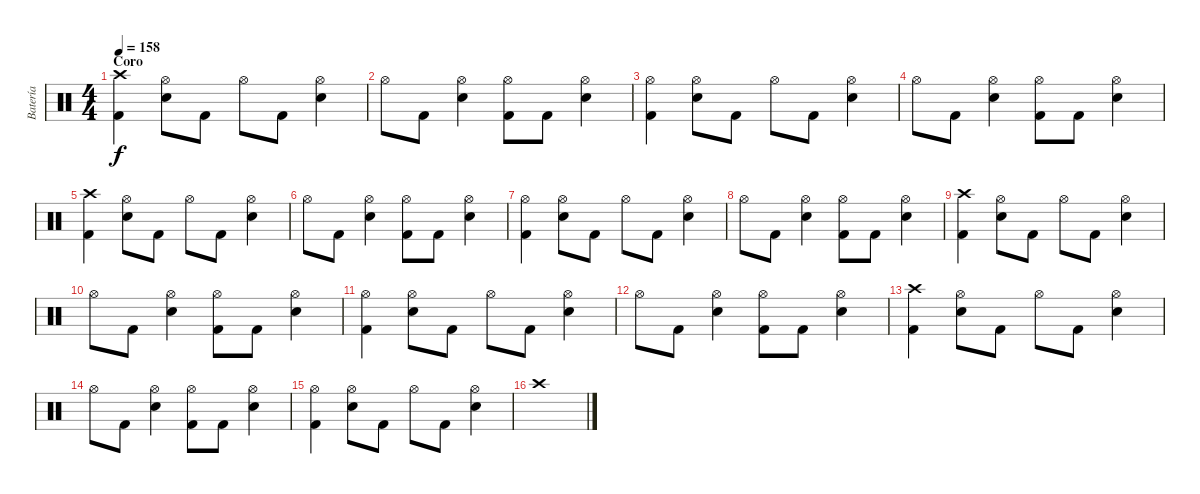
\track ("Batería" "Batería") {instrument percussion}
\staff {score}
\articulation defaults
\ts (4 4)
\section ("" "Coro")
\tempo 158
\clef neutral
\ks c
("Crash high (hit)" "Kick (hit) 2").4{dy f} ("Hi-Hat (open)" "Electric Snare (hit)").8 "Kick (hit) 2".8 "Hi-Hat (open)".8 "Kick (hit) 2".8 ("Hi-Hat (open)" "Electric Snare (hit)").4 |
"Hi-Hat (open)".8 "Kick (hit) 2".8 ("Hi-Hat (open)" "Electric Snare (hit)").4 ("Hi-Hat (open)" "Kick (hit) 2").8 "Kick (hit) 2".8 ("Hi-Hat (open)" "Electric Snare (hit)").4 |
("Hi-Hat (open)" "Kick (hit) 2").4 ("Hi-Hat (open)" "Electric Snare (hit)").8 "Kick (hit) 2".8 "Hi-Hat (open)".8 "Kick (hit) 2".8 ("Hi-Hat (open)" "Electric Snare (hit)").4 |
"Hi-Hat (open)".8 "Kick (hit) 2".8 ("Hi-Hat (open)" "Electric Snare (hit)").4 ("Hi-Hat (open)" "Kick (hit) 2").8 "Kick (hit) 2".8 ("Hi-Hat (open)" "Electric Snare (hit)").4 |
("Crash high (hit)" "Kick (hit) 2").4 ("Hi-Hat (open)" "Electric Snare (hit)").8 "Kick (hit) 2".8 "Hi-Hat (open)".8 "Kick (hit) 2".8 ("Hi-Hat (open)" "Electric Snare (hit)").4 |
"Hi-Hat (open)".8 "Kick (hit) 2".8 ("Hi-Hat (open)" "Electric Snare (hit)").4 ("Hi-Hat (open)" "Kick (hit) 2").8 "Kick (hit) 2".8 ("Hi-Hat (open)" "Electric Snare (hit)").4 |
("Hi-Hat (open)" "Kick (hit) 2").4 ("Hi-Hat (open)" "Electric Snare (hit)").8 "Kick (hit) 2".8 "Hi-Hat (open)".8 "Kick (hit) 2".8 ("Hi-Hat (open)" "Electric Snare (hit)").4 |
"Hi-Hat (open)".8 "Kick (hit) 2".8 ("Hi-Hat (open)" "Electric Snare (hit)").4 ("Hi-Hat (open)" "Kick (hit) 2").8 "Kick (hit) 2".8 ("Hi-Hat (open)" "Electric Snare (hit)").4 |
("Crash high (hit)" "Kick (hit) 2").4 ("Hi-Hat (open)" "Electric Snare (hit)").8 "Kick (hit) 2".8 "Hi-Hat (open)".8 "Kick (hit) 2".8 ("Hi-Hat (open)" "Electric Snare (hit)").4 |
"Hi-Hat (open)".8 "Kick (hit) 2".8 ("Hi-Hat (open)" "Electric Snare (hit)").4 ("Hi-Hat (open)" "Kick (hit) 2").8 "Kick (hit) 2".8 ("Hi-Hat (open)" "Electric Snare (hit)").4 |
("Hi-Hat (open)" "Kick (hit) 2").4 ("Hi-Hat (open)" "Electric Snare (hit)").8 "Kick (hit) 2".8 "Hi-Hat (open)".8 "Kick (hit) 2".8 ("Hi-Hat (open)" "Electric Snare (hit)").4 |
"Hi-Hat (open)".8 "Kick (hit) 2".8 ("Hi-Hat (open)" "Electric Snare (hit)").4 ("Hi-Hat (open)" "Kick (hit) 2").8 "Kick (hit) 2".8 ("Hi-Hat (open)" "Electric Snare (hit)").4 |
("Crash high (hit)" "Kick (hit) 2").4 ("Hi-Hat (open)" "Electric Snare (hit)").8 "Kick (hit) 2".8 "Hi-Hat (open)".8 "Kick (hit) 2".8 ("Hi-Hat (open)" "Electric Snare (hit)").4 |
"Hi-Hat (open)".8 "Kick (hit) 2".8 ("Hi-Hat (open)" "Electric Snare (hit)").4 ("Hi-Hat (open)" "Kick (hit) 2").8 "Kick (hit) 2".8 ("Hi-Hat (open)" "Electric Snare (hit)").4 |
("Hi-Hat (open)" "Kick (hit) 2").4 ("Hi-Hat (open)" "Electric Snare (hit)").8 "Kick (hit) 2".8 "Hi-Hat (open)".8 "Kick (hit) 2".8 ("Hi-Hat (open)" "Electric Snare (hit)").4 |
"Crash high (hit)".1
